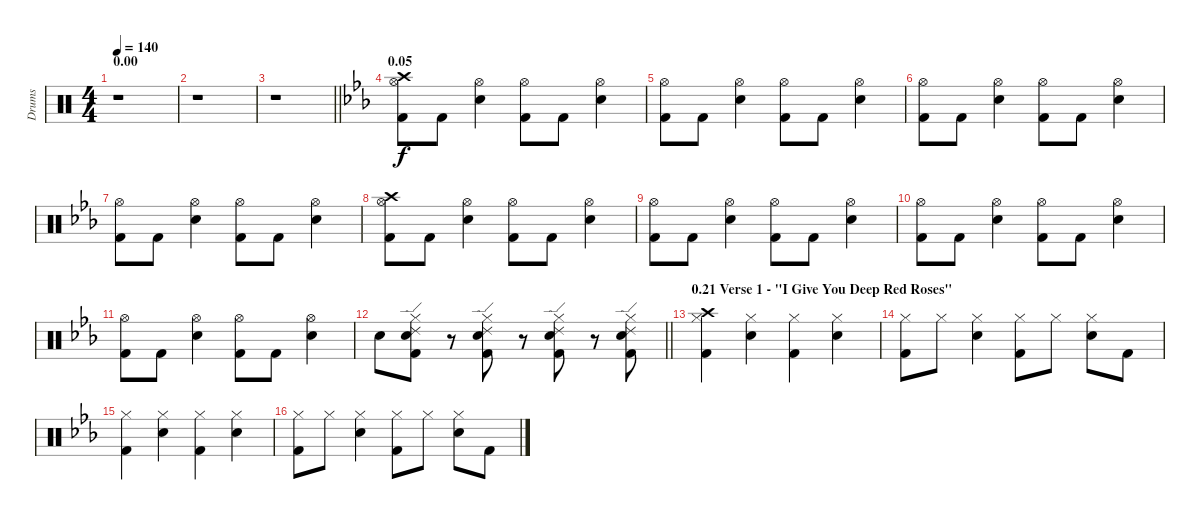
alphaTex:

\track ("Drums" "Drums") {instrument percussion}
\staff {score}
\articulation defaults
\ts (4 4)
\section ("" "0.00")
\tempo 140
\clef neutral
\ks c
r.1{dy f} |
r.1 |
\barLineRight lightlight
r.1 |
\section ("" "0.05")
\ks cminor
("Crash high (hit)" "Hi-Hat (open)" "Kick (hit) 2").8 "Kick (hit) 2".8 ("Hi-Hat (open)" "Electric Snare (hit)").4 ("Hi-Hat (open)" "Kick (hit) 2").8 "Kick (hit) 2".8 ("Hi-Hat (open)" "Electric Snare (hit)").4 |
("Hi-Hat (open)" "Kick (hit) 2").8 "Kick (hit) 2".8 ("Hi-Hat (open)" "Electric Snare (hit)").4 ("Hi-Hat (open)" "Kick (hit) 2").8 "Kick (hit) 2".8 ("Hi-Hat (open)" "Electric Snare (hit)").4 |
("Hi-Hat (open)" "Kick (hit) 2").8 "Kick (hit) 2".8 ("Hi-Hat (open)" "Electric Snare (hit)").4 ("Hi-Hat (open)" "Kick (hit) 2").8 "Kick (hit) 2".8 ("Hi-Hat (open)" "Electric Snare (hit)").4 |
("Hi-Hat (open)" "Kick (hit) 2").8 "Kick (hit) 2".8 ("Hi-Hat (open)" "Electric Snare (hit)").4 ("Hi-Hat (open)" "Kick (hit) 2").8 "Kick (hit) 2".8 ("Hi-Hat (open)" "Electric Snare (hit)").4 |
("Crash high (hit)" "Hi-Hat (open)" "Kick (hit) 2").8 "Kick (hit) 2".8 ("Hi-Hat (open)" "Electric Snare (hit)").4 ("Hi-Hat (open)" "Kick (hit) 2").8 "Kick (hit) 2".8 ("Hi-Hat (open)" "Electric Snare (hit)").4 |
("Hi-Hat (open)" "Kick (hit) 2").8 "Kick (hit) 2".8 ("Hi-Hat (open)" "Electric Snare (hit)").4 ("Hi-Hat (open)" "Kick (hit) 2").8 "Kick (hit) 2".8 ("Hi-Hat (open)" "Electric Snare (hit)").4 |
("Hi-Hat (open)" "Kick (hit) 2").8 "Kick (hit) 2".8 ("Hi-Hat (open)" "Electric Snare (hit)").4 ("Hi-Hat (open)" "Kick (hit) 2").8 "Kick (hit) 2".8 ("Hi-Hat (open)" "Electric Snare (hit)").4 |
("Hi-Hat (open)" "Kick (hit) 2").8 "Kick (hit) 2".8 ("Hi-Hat (open)" "Electric Snare (hit)").4 ("Hi-Hat (open)" "Kick (hit) 2").8 "Kick (hit) 2".8 ("Hi-Hat (open)" "Electric Snare (hit)").4 |
\barLineRight lightlight "Electric Snare (hit)".8
("Ride (edge) 2" "Hi-Hat (closed)" "Electric Snare (hit)" "Kick (hit) 2").8 r.8 ("Ride (edge) 2" "Hi-Hat (closed)" "Electric Snare (hit)" "Kick (hit) 2").8 r.8 ("Ride (edge) 2" "Hi-Hat (closed)" "Electric Snare (hit)" "Kick (hit) 2").8 r.8 ("Ride (edge) 2" "Hi-Hat (closed)" "Electric Snare (hit)" "Kick (hit) 2").8 |
\section ("" "0.21 Verse 1 - \"I Give You Deep Red Roses\"")
("Crash high (hit)" "Hi-Hat (closed)" "Kick (hit) 2").4 ("Hi-Hat (closed)" "Electric Snare (hit)").4 ("Hi-Hat (closed)" "Kick (hit) 2").4 ("Hi-Hat (closed)" "Electric Snare (hit)").4 |
("Hi-Hat (closed)" "Kick (hit) 2").8 "Hi-Hat (closed)".8 ("Hi-Hat (closed)" "Electric Snare (hit)").4 ("Hi-Hat (closed)" "Kick (hit) 2").8 "Hi-Hat (closed)".8 ("Hi-Hat (closed)" "Electric Snare (hit)").8 "Kick (hit) 2".8 |
("Hi-Hat (closed)" "Kick (hit) 2").4 ("Hi-Hat (closed)" "Electric Snare (hit)").4 ("Hi-Hat (closed)" "Kick (hit) 2").4 ("Hi-Hat (closed)" "Electric Snare (hit)").4 |
("Hi-Hat (closed)" "Kick (hit) 2").8 "Hi-Hat (closed)".8 ("Hi-Hat (closed)" "Electric Snare (hit)").4 ("Hi-Hat (closed)" "Kick (hit) 2").8 "Hi-Hat (closed)".8 ("Hi-Hat (closed)" "Electric Snare (hit)").8 "Kick (hit) 2".8
